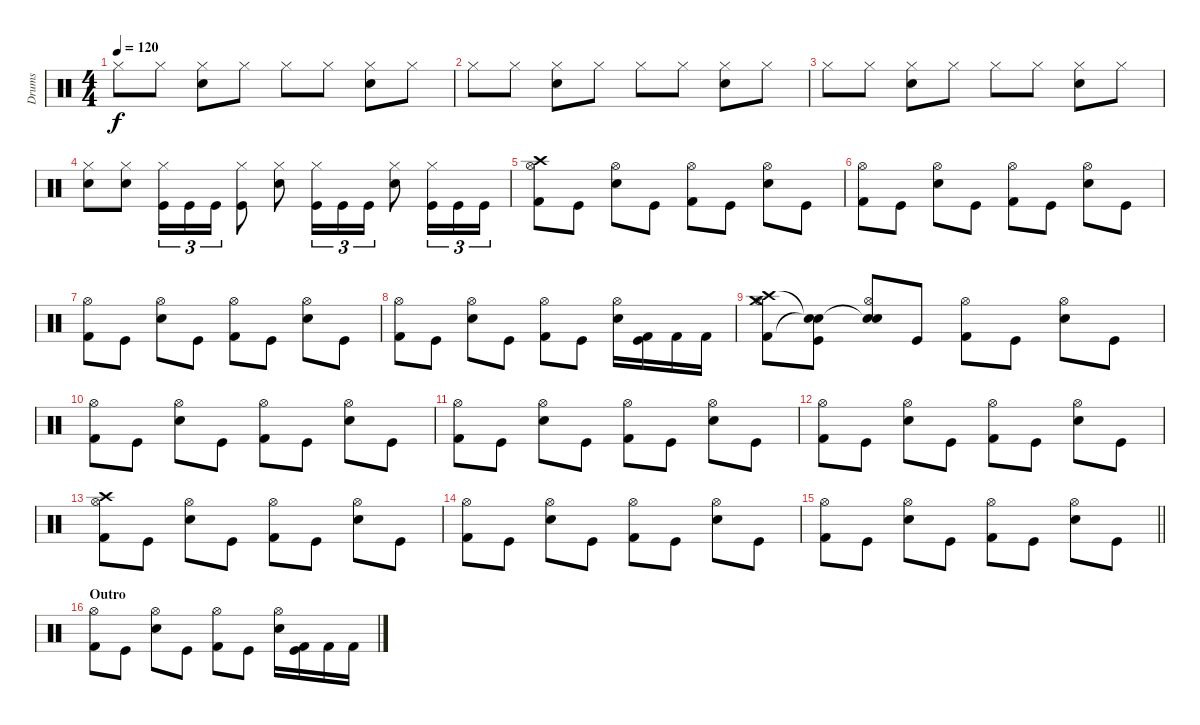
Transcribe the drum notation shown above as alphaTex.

\track ("Drums" "Drums") {instrument percussion}
\staff {score}
\articulation defaults
\ts (4 4)
\tempo 120
\clef neutral
\ks c "Hi-Hat (closed)".8{dy f} "Hi-Hat (closed)".8
("Hi-Hat (closed)" "Electric Snare (hit)").8 "Hi-Hat (closed)".8 "Hi-Hat (closed)".8 "Hi-Hat (closed)".8 ("Hi-Hat (closed)" "Electric Snare (hit)").8 "Hi-Hat (closed)".8 |
"Hi-Hat (closed)".8 "Hi-Hat (closed)".8 ("Hi-Hat (closed)" "Electric Snare (hit)").8 "Hi-Hat (closed)".8 "Hi-Hat (closed)".8 "Hi-Hat (closed)".8 ("Hi-Hat (closed)" "Electric Snare (hit)").8 "Hi-Hat (closed)".8 |
"Hi-Hat (closed)".8 "Hi-Hat (closed)".8 ("Hi-Hat (closed)" "Electric Snare (hit)").8 "Hi-Hat (closed)".8 "Hi-Hat (closed)".8 "Hi-Hat (closed)".8 ("Hi-Hat (closed)" "Electric Snare (hit)").8 "Hi-Hat (closed)".8 |
("Hi-Hat (closed)" "Electric Snare (hit)").8 ("Hi-Hat (closed)" "Electric Snare (hit)").8 ("Hi-Hat (closed)" "Kick (hit)").16{tu (3 2)} "Kick (hit)".16{tu (3 2)} "Kick (hit)".16{tu (3 2)} ("Hi-Hat (closed)" "Kick (hit)").8 ("Hi-Hat (closed)" "Electric Snare (hit)").8 ("Hi-Hat (closed)" "Kick (hit)").16{tu (3 2)} "Kick (hit)".16{tu (3 2)} "Kick (hit)".16{tu (3 2)} ("Hi-Hat (closed)" "Electric Snare (hit)").8 ("Hi-Hat (closed)" "Kick (hit)").16{tu (3 2)} "Kick (hit)".16{tu (3 2)} "Kick (hit)".16{tu (3 2)} |
("Hi-Hat (open)" "Kick (hit) 2" "Crash high (hit)").8 "Kick (hit)".8 ("Hi-Hat (open)" "Electric Snare (hit)").8 "Kick (hit)".8 ("Hi-Hat (open)" "Kick (hit) 2").8 "Kick (hit)".8 ("Hi-Hat (open)" "Electric Snare (hit)").8 "Kick (hit)".8 |
("Hi-Hat (open)" "Kick (hit) 2").8 "Kick (hit)".8 ("Hi-Hat (open)" "Electric Snare (hit)").8 "Kick (hit)".8 ("Hi-Hat (open)" "Kick (hit) 2").8 "Kick (hit)".8 ("Hi-Hat (open)" "Electric Snare (hit)").8 "Kick (hit)".8 |
("Hi-Hat (open)" "Kick (hit) 2").8 "Kick (hit)".8 ("Hi-Hat (open)" "Electric Snare (hit)").8 "Kick (hit)".8 ("Hi-Hat (open)" "Kick (hit) 2").8 "Kick (hit)".8 ("Hi-Hat (open)" "Electric Snare (hit)").8 "Kick (hit)".8 |
("Hi-Hat (open)" "Kick (hit) 2").8 "Kick (hit)".8 ("Hi-Hat (open)" "Electric Snare (hit)").8 "Kick (hit)".8 ("Hi-Hat (open)" "Kick (hit) 2").8 "Kick (hit)".8 ("Hi-Hat (open)" "Electric Snare (hit)").16 ("Kick (hit)" "Kick (hit) 2").16 "Kick (hit) 2".16 "Kick (hit) 2".16 |
("Hi-Hat (open)" "Kick (hit) 2" "Crash high (hit)" "Crash medium (hit)").8 ("Kick (hit)" "Snare (hit)"{t} "Snare (hit)"{t}).8 ("Hi-Hat (open)" "Electric Snare (hit)" "Snare (hit)"{t}).8 "Kick (hit)".8 ("Hi-Hat (open)" "Kick (hit) 2").8 "Kick (hit)".8 ("Hi-Hat (open)" "Electric Snare (hit)").8 "Kick (hit)".8 |
("Hi-Hat (open)" "Kick (hit) 2").8 "Kick (hit)".8 ("Hi-Hat (open)" "Electric Snare (hit)").8 "Kick (hit)".8 ("Hi-Hat (open)" "Kick (hit) 2").8 "Kick (hit)".8 ("Hi-Hat (open)" "Electric Snare (hit)").8 "Kick (hit)".8 |
("Hi-Hat (open)" "Kick (hit) 2").8 "Kick (hit)".8 ("Hi-Hat (open)" "Electric Snare (hit)").8 "Kick (hit)".8 ("Hi-Hat (open)" "Kick (hit) 2").8 "Kick (hit)".8 ("Hi-Hat (open)" "Electric Snare (hit)").8 "Kick (hit)".8 |
("Hi-Hat (open)" "Kick (hit) 2").8 "Kick (hit)".8 ("Hi-Hat (open)" "Electric Snare (hit)").8 "Kick (hit)".8 ("Hi-Hat (open)" "Kick (hit) 2").8 "Kick (hit)".8 ("Hi-Hat (open)" "Electric Snare (hit)").8 "Kick (hit)".8 |
("Hi-Hat (open)" "Kick (hit) 2" "Crash high (hit)").8 "Kick (hit)".8 ("Hi-Hat (open)" "Electric Snare (hit)").8 "Kick (hit)".8 ("Hi-Hat (open)" "Kick (hit) 2").8 "Kick (hit)".8 ("Hi-Hat (open)" "Electric Snare (hit)").8 "Kick (hit)".8 |
("Hi-Hat (open)" "Kick (hit) 2").8 "Kick (hit)".8 ("Hi-Hat (open)" "Electric Snare (hit)").8 "Kick (hit)".8 ("Hi-Hat (open)" "Kick (hit) 2").8 "Kick (hit)".8 ("Hi-Hat (open)" "Electric Snare (hit)").8 "Kick (hit)".8 |
\barLineRight lightlight
("Hi-Hat (open)" "Kick (hit) 2").8 "Kick (hit)".8 ("Hi-Hat (open)" "Electric Snare (hit)").8 "Kick (hit)".8 ("Hi-Hat (open)" "Kick (hit) 2").8 "Kick (hit)".8 ("Hi-Hat (open)" "Electric Snare (hit)").8 "Kick (hit)".8 |
\section ("" "Outro")
("Hi-Hat (open)" "Kick (hit) 2").8 "Kick (hit)".8 ("Hi-Hat (open)" "Electric Snare (hit)").8 "Kick (hit)".8 ("Hi-Hat (open)" "Kick (hit) 2").8 "Kick (hit)".8 ("Hi-Hat (open)" "Electric Snare (hit)").16 ("Kick (hit)" "Kick (hit) 2").16 "Kick (hit) 2".16 "Kick (hit) 2".16
